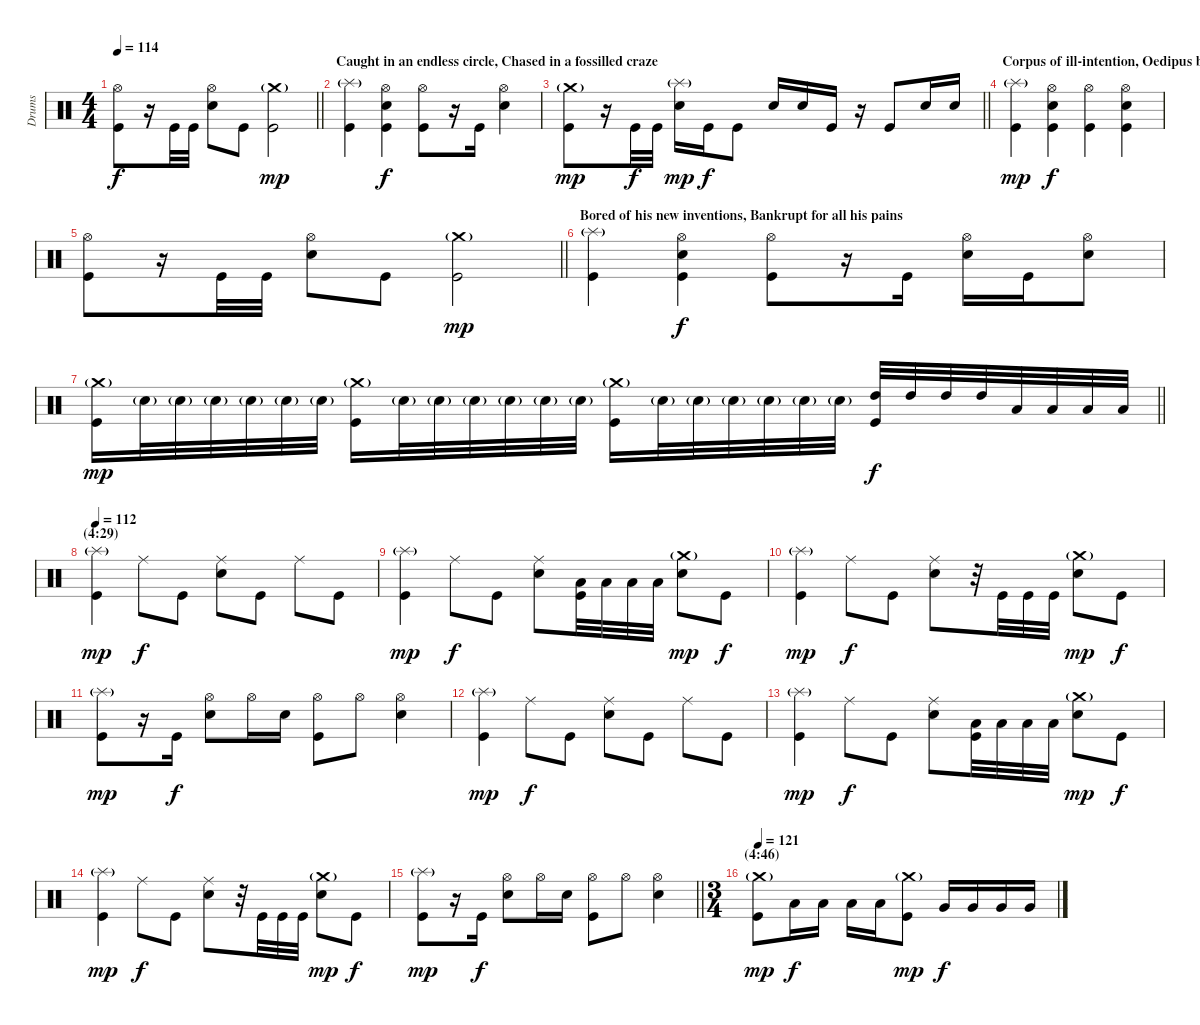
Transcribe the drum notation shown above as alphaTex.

\track ("Drums" "Drums") {instrument percussion}
\staff {score}
\articulation defaults
\ts (4 4)
\tempo 114
\clef neutral
\barLineRight lightlight
\ks c
("Hi-Hat (open)" "Kick (hit)").8{dy f} r.16 "Kick (hit)".32 "Kick (hit)".32 ("Hi-Hat (open)" "Snare (hit) 2").8 "Kick (hit)".8 ("Crash medium (hit)"{g} "Kick (hit)").2{dy mp} |
\section ("" "Caught in an endless circle, Chased in a fossilled craze ")
("Splash (hit)"{g} "Kick (hit)").4 ("Hi-Hat (open)" "Snare (hit) 2" "Kick (hit)").4{dy f} ("Hi-Hat (open)" "Kick (hit)").8 r.16 "Kick (hit)".16 ("Hi-Hat (open)" "Snare (hit) 2").4 |
\barLineRight lightlight
("Crash medium (hit)"{g} "Kick (hit)").8{dy mp} r.16 "Kick (hit)".32{dy f} "Kick (hit)".32 ("Splash (hit)"{g} "Snare (hit) 2").16{dy mp} "Kick (hit)".16{dy f} "Kick (hit)".8 "Snare (hit) 2".16 "Snare (hit) 2".16 "Kick (hit)".16 r.16 "Kick (hit)".8 "Snare (hit) 2".16 "Snare (hit) 2".16 |
\section ("" "Corpus of ill-intention, Oedipus bound in chains ")
("Splash (hit)"{g} "Kick (hit)").4{dy mp} ("Hi-Hat (open)" "Snare (hit) 2" "Kick (hit)").4{dy f} ("Hi-Hat (open)" "Kick (hit)").4 ("Hi-Hat (open)" "Snare (hit) 2" "Kick (hit)").4 |
\barLineRight lightlight
("Hi-Hat (open)" "Kick (hit)").8 r.16 "Kick (hit)".32 "Kick (hit)".32 ("Hi-Hat (open)" "Snare (hit) 2").8 "Kick (hit)".8 ("Crash medium (hit)"{g} "Kick (hit)").2{dy mp} |
\section ("" "Bored of his new inventions, Bankrupt for all his pains")
("Splash (hit)"{g} "Kick (hit)").4 ("Hi-Hat (open)" "Snare (hit) 2" "Kick (hit)").4{dy f} ("Hi-Hat (open)" "Kick (hit)").8 r.16 "Kick (hit)".16 ("Hi-Hat (open)" "Snare (hit) 2").16 "Kick (hit)".16 ("Hi-Hat (open)" "Snare (hit) 2").8 |
\barLineRight lightlight
("Crash medium (hit)"{g} "Kick (hit)").16{dy mp} "Snare (hit) 2"{g}.32 "Snare (hit) 2"{g}.32 "Snare (hit) 2"{g}.32 "Snare (hit) 2"{g}.32 "Snare (hit) 2"{g}.32 "Snare (hit) 2"{g}.32 ("Crash medium (hit)"{g} "Kick (hit)").16 "Snare (hit) 2"{g}.32 "Snare (hit) 2"{g}.32 "Snare (hit) 2"{g}.32 "Snare (hit) 2"{g}.32 "Snare (hit) 2"{g}.32 "Snare (hit) 2"{g}.32 ("Crash medium (hit)"{g} "Kick (hit)").16 "Snare (hit) 2"{g}.32 "Snare (hit) 2"{g}.32 "Snare (hit) 2"{g}.32 "Snare (hit) 2"{g}.32 "Snare (hit) 2"{g}.32 "Snare (hit) 2"{g}.32 ("High Tom (hit)" "Kick (hit)").32{dy f} "High Tom (hit)".32 "High Tom (hit)".32 "High Tom (hit)".32 "Low Tom (hit)".32 "Low Tom (hit)".32 "Low Tom (hit)".32 "Low Tom (hit)".32 |
\section ("" "(4:29)")
\tempo 112
("Splash (hit)"{g} "Kick (hit)").4{dy mp} "Ride (middle)".8{dy f} "Kick (hit)".8 ("Ride (middle)" "Snare (hit) 2").8 "Kick (hit)".8 "Ride (middle)".8 "Kick (hit)".8 |
("Splash (hit)"{g} "Kick (hit)").4{dy mp} "Ride (middle)".8{dy f} "Kick (hit)".8 ("Ride (middle)" "Snare (hit) 2").8 ("Low Tom (hit)" "Kick (hit)").32 "Low Tom (hit)".32 "Low Tom (hit)".32 "Low Tom (hit)".32 ("Crash medium (hit)"{g} "Snare (hit) 2").8{dy mp} "Kick (hit)".8{dy f} |
("Splash (hit)"{g} "Kick (hit)").4{dy mp} "Ride (middle)".8{dy f} "Kick (hit)".8 ("Ride (middle)" "Snare (hit) 2").8 r.32 "Kick (hit)".32 "Kick (hit)".32 "Kick (hit)".32 ("Crash medium (hit)"{g} "Snare (hit) 2").8{dy mp} "Kick (hit)".8{dy f} |
("Splash (hit)"{g} "Kick (hit)").8{dy mp} r.16 "Kick (hit)".16{dy f} ("Hi-Hat (open)" "Snare (hit) 2").8 "Hi-Hat (open)".16 "Snare (hit) 2".16 ("Hi-Hat (open)" "Kick (hit)").8 "Hi-Hat (open)".8 ("Hi-Hat (open)" "Snare (hit) 2").4 |
("Splash (hit)"{g} "Kick (hit)").4{dy mp} "Ride (middle)".8{dy f} "Kick (hit)".8 ("Ride (middle)" "Snare (hit) 2").8 "Kick (hit)".8 "Ride (middle)".8 "Kick (hit)".8 |
("Splash (hit)"{g} "Kick (hit)").4{dy mp} "Ride (middle)".8{dy f} "Kick (hit)".8 ("Ride (middle)" "Snare (hit) 2").8 ("Low Tom (hit)" "Kick (hit)").32 "Low Tom (hit)".32 "Low Tom (hit)".32 "Low Tom (hit)".32 ("Crash medium (hit)"{g} "Snare (hit) 2").8{dy mp} "Kick (hit)".8{dy f} |
("Splash (hit)"{g} "Kick (hit)").4{dy mp} "Ride (middle)".8{dy f} "Kick (hit)".8 ("Ride (middle)" "Snare (hit) 2").8 r.32 "Kick (hit)".32 "Kick (hit)".32 "Kick (hit)".32 ("Crash medium (hit)"{g} "Snare (hit) 2").8{dy mp} "Kick (hit)".8{dy f} |
\barLineRight lightlight
("Splash (hit)"{g} "Kick (hit)").8{dy mp} r.16 "Kick (hit)".16{dy f} ("Hi-Hat (open)" "Snare (hit) 2").8 "Hi-Hat (open)".16 "Snare (hit) 2".16 ("Hi-Hat (open)" "Kick (hit)").8 "Hi-Hat (open)".8 ("Hi-Hat (open)" "Snare (hit) 2").4 |
\ts (3 4)
\section ("" "(4:46)")
\tempo 121
("Crash medium (hit)"{g} "Kick (hit)").8{dy mp} "Low Tom (hit)".16{dy f} "Low Tom (hit)".16 "Low Tom (hit)".16 "Low Tom (hit)".16 ("Crash medium (hit)"{g} "Kick (hit)").8{dy mp} "Very Low Tom (hit)".16{dy f} "Very Low Tom (hit)".16 "Very Low Tom (hit)".16 "Very Low Tom (hit)".16
